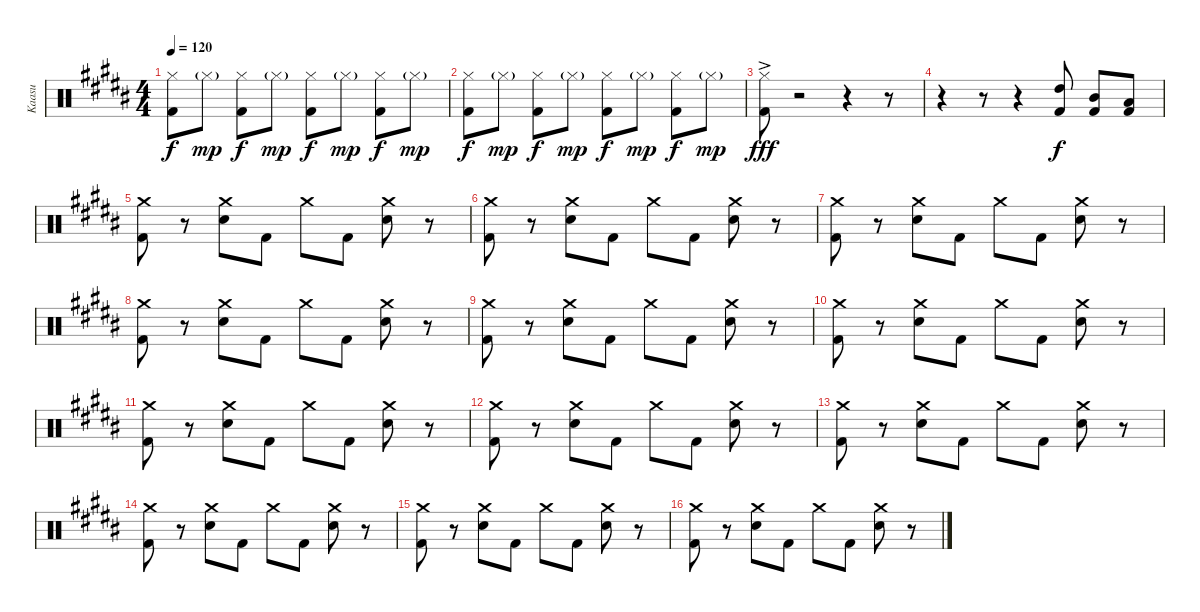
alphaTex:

\track ("Kaasu" "Kaasu") {instrument percussion}
\staff {score}
\articulation defaults
\ts (4 4)
\tempo 120
\clef neutral
\ks b
("Hi-Hat (closed)" "Kick (hit) 2").8{dy f} "Hi-Hat (closed)"{g}.8{dy mp} ("Hi-Hat (closed)" "Kick (hit) 2").8{dy f} "Hi-Hat (closed)"{g}.8{dy mp} ("Hi-Hat (closed)" "Kick (hit) 2").8{dy f} "Hi-Hat (closed)"{g}.8{dy mp} ("Hi-Hat (closed)" "Kick (hit) 2").8{dy f} "Hi-Hat (closed)"{g}.8{dy mp} |
("Hi-Hat (closed)" "Kick (hit) 2").8{dy f} "Hi-Hat (closed)"{g}.8{dy mp} ("Hi-Hat (closed)" "Kick (hit) 2").8{dy f} "Hi-Hat (closed)"{g}.8{dy mp} ("Hi-Hat (closed)" "Kick (hit) 2").8{dy f} "Hi-Hat (closed)"{g}.8{dy mp} ("Hi-Hat (closed)" "Kick (hit) 2").8{dy f} "Hi-Hat (closed)"{g}.8{dy mp} |
("Hi-Hat (closed)"{ac} "Kick (hit) 2"{ac}).8{dy fff} r.2 r.4 r.8 |
r.4 r.8 r.4 ("High Tom (hit)" "Kick (hit) 2").8{dy f} ("Mid Tom (hit)" "Kick (hit) 2").8 ("Low Tom (hit)" "Kick (hit) 2").8 |
("Crash medium (hit)" "Kick (hit) 2").8{volume 13} r.8 ("Crash medium (hit)" "Snare (hit) 2").8 "Kick (hit) 2".8 "Crash medium (hit)".8 "Kick (hit) 2".8 ("Crash medium (hit)" "Snare (hit) 2").8 r.8 |
("Crash medium (hit)" "Kick (hit) 2").8{volume 13} r.8 ("Crash medium (hit)" "Snare (hit) 2").8 "Kick (hit) 2".8 "Crash medium (hit)".8 "Kick (hit) 2".8 ("Crash medium (hit)" "Snare (hit) 2").8 r.8 |
("Crash medium (hit)" "Kick (hit) 2").8{volume 13} r.8 ("Crash medium (hit)" "Snare (hit) 2").8 "Kick (hit) 2".8 "Crash medium (hit)".8 "Kick (hit) 2".8 ("Crash medium (hit)" "Snare (hit) 2").8 r.8 |
("Crash medium (hit)" "Kick (hit) 2").8{volume 13} r.8 ("Crash medium (hit)" "Snare (hit) 2").8 "Kick (hit) 2".8 "Crash medium (hit)".8 "Kick (hit) 2".8 ("Crash medium (hit)" "Snare (hit) 2").8 r.8 |
("Crash medium (hit)" "Kick (hit) 2").8{volume 13} r.8 ("Crash medium (hit)" "Snare (hit) 2").8 "Kick (hit) 2".8 "Crash medium (hit)".8 "Kick (hit) 2".8 ("Crash medium (hit)" "Snare (hit) 2").8 r.8 |
("Crash medium (hit)" "Kick (hit) 2").8{volume 13} r.8 ("Crash medium (hit)" "Snare (hit) 2").8 "Kick (hit) 2".8 "Crash medium (hit)".8 "Kick (hit) 2".8 ("Crash medium (hit)" "Snare (hit) 2").8 r.8 |
("Crash medium (hit)" "Kick (hit) 2").8{volume 13} r.8 ("Crash medium (hit)" "Snare (hit) 2").8 "Kick (hit) 2".8 "Crash medium (hit)".8 "Kick (hit) 2".8 ("Crash medium (hit)" "Snare (hit) 2").8 r.8 |
("Crash medium (hit)" "Kick (hit) 2").8{volume 13} r.8 ("Crash medium (hit)" "Snare (hit) 2").8 "Kick (hit) 2".8 "Crash medium (hit)".8 "Kick (hit) 2".8 ("Crash medium (hit)" "Snare (hit) 2").8 r.8 |
("Crash medium (hit)" "Kick (hit) 2").8{volume 13} r.8 ("Crash medium (hit)" "Snare (hit) 2").8 "Kick (hit) 2".8 "Crash medium (hit)".8 "Kick (hit) 2".8 ("Crash medium (hit)" "Snare (hit) 2").8 r.8 |
("Crash medium (hit)" "Kick (hit) 2").8{volume 13} r.8 ("Crash medium (hit)" "Snare (hit) 2").8 "Kick (hit) 2".8 "Crash medium (hit)".8 "Kick (hit) 2".8 ("Crash medium (hit)" "Snare (hit) 2").8 r.8 |
("Crash medium (hit)" "Kick (hit) 2").8{volume 13} r.8 ("Crash medium (hit)" "Snare (hit) 2").8 "Kick (hit) 2".8 "Crash medium (hit)".8 "Kick (hit) 2".8 ("Crash medium (hit)" "Snare (hit) 2").8 r.8 |
("Crash medium (hit)" "Kick (hit) 2").8{volume 13} r.8 ("Crash medium (hit)" "Snare (hit) 2").8 "Kick (hit) 2".8 "Crash medium (hit)".8 "Kick (hit) 2".8 ("Crash medium (hit)" "Snare (hit) 2").8 r.8
